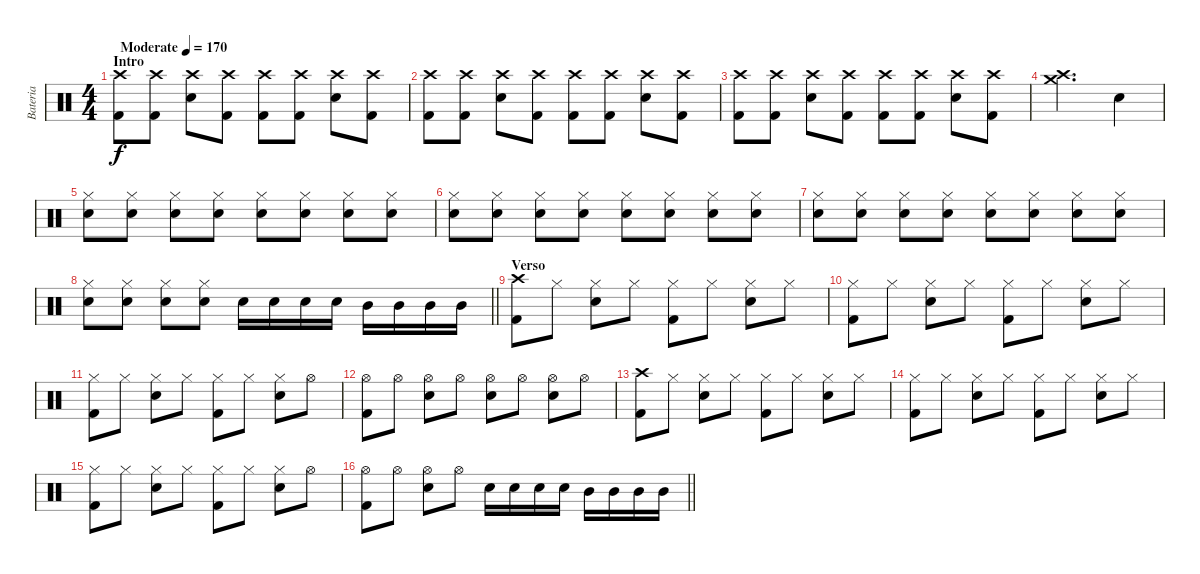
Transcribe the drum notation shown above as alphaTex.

\track ("Bateria" "Bateria") {instrument percussion}
\staff {score}
\articulation defaults
\ts (4 4)
\section ("" "Intro")
\tempo (170 "Moderate")
\clef neutral
\ks c
("Crash high (hit)" "Kick (hit) 2").8{dy f} ("Crash high (hit)" "Kick (hit) 2").8 ("Crash high (hit)" "Snare (hit) 2").8 ("Crash high (hit)" "Kick (hit) 2").8 ("Crash high (hit)" "Kick (hit) 2").8 ("Crash high (hit)" "Kick (hit) 2").8 ("Crash high (hit)" "Snare (hit) 2").8 ("Crash high (hit)" "Kick (hit) 2").8 |
("Crash high (hit)" "Kick (hit) 2").8 ("Crash high (hit)" "Kick (hit) 2").8 ("Crash high (hit)" "Snare (hit) 2").8 ("Crash high (hit)" "Kick (hit) 2").8 ("Crash high (hit)" "Kick (hit) 2").8 ("Crash high (hit)" "Kick (hit) 2").8 ("Crash high (hit)" "Snare (hit) 2").8 ("Crash high (hit)" "Kick (hit) 2").8 |
("Crash high (hit)" "Kick (hit) 2").8 ("Crash high (hit)" "Kick (hit) 2").8 ("Crash high (hit)" "Snare (hit) 2").8 ("Crash high (hit)" "Kick (hit) 2").8 ("Crash high (hit)" "Kick (hit) 2").8 ("Crash high (hit)" "Kick (hit) 2").8 ("Crash high (hit)" "Snare (hit) 2").8 ("Crash high (hit)" "Kick (hit) 2").8 |
("Crash high (hit)" "Crash medium (hit)").2{d} "Snare (hit) 2".4 |
("Hi-Hat (closed)" "Snare (hit) 2").8 ("Hi-Hat (closed)" "Snare (hit) 2").8 ("Hi-Hat (closed)" "Snare (hit) 2").8 ("Hi-Hat (closed)" "Snare (hit) 2").8 ("Hi-Hat (closed)" "Snare (hit) 2").8 ("Hi-Hat (closed)" "Snare (hit) 2").8 ("Hi-Hat (closed)" "Snare (hit) 2").8 ("Hi-Hat (closed)" "Snare (hit) 2").8 |
("Hi-Hat (closed)" "Snare (hit) 2").8 ("Hi-Hat (closed)" "Snare (hit) 2").8 ("Hi-Hat (closed)" "Snare (hit) 2").8 ("Hi-Hat (closed)" "Snare (hit) 2").8 ("Hi-Hat (closed)" "Snare (hit) 2").8 ("Hi-Hat (closed)" "Snare (hit) 2").8 ("Hi-Hat (closed)" "Snare (hit) 2").8 ("Hi-Hat (closed)" "Snare (hit) 2").8 |
("Hi-Hat (closed)" "Snare (hit) 2").8 ("Hi-Hat (closed)" "Snare (hit) 2").8 ("Hi-Hat (closed)" "Snare (hit) 2").8 ("Hi-Hat (closed)" "Snare (hit) 2").8 ("Hi-Hat (closed)" "Snare (hit) 2").8 ("Hi-Hat (closed)" "Snare (hit) 2").8 ("Hi-Hat (closed)" "Snare (hit) 2").8 ("Hi-Hat (closed)" "Snare (hit) 2").8 |
\barLineRight lightlight
("Hi-Hat (closed)" "Snare (hit) 2").8 ("Hi-Hat (closed)" "Snare (hit) 2").8 ("Hi-Hat (closed)" "Snare (hit) 2").8 ("Hi-Hat (closed)" "Snare (hit) 2").8 "Snare (hit) 2".16 "Snare (hit) 2".16 "Snare (hit) 2".16 "Snare (hit) 2".16 "Mid Tom (hit)".16 "Mid Tom (hit)".16 "Mid Tom (hit)".16 "Mid Tom (hit)".16 |
\section ("" "Verso")
("Crash high (hit)" "Kick (hit) 2").8 "Hi-Hat (closed)".8 ("Hi-Hat (closed)" "Snare (hit) 2").8 "Hi-Hat (closed)".8 ("Hi-Hat (closed)" "Kick (hit) 2").8 "Hi-Hat (closed)".8 ("Hi-Hat (closed)" "Snare (hit) 2").8 "Hi-Hat (closed)".8 |
("Hi-Hat (closed)" "Kick (hit) 2").8 "Hi-Hat (closed)".8 ("Hi-Hat (closed)" "Snare (hit) 2").8 "Hi-Hat (closed)".8 ("Hi-Hat (closed)" "Kick (hit) 2").8 "Hi-Hat (closed)".8 ("Hi-Hat (closed)" "Snare (hit) 2").8 "Hi-Hat (closed)".8 |
("Hi-Hat (closed)" "Kick (hit) 2").8 "Hi-Hat (closed)".8 ("Hi-Hat (closed)" "Snare (hit) 2").8 "Hi-Hat (closed)".8 ("Hi-Hat (closed)" "Kick (hit) 2").8 "Hi-Hat (closed)".8 ("Hi-Hat (closed)" "Snare (hit) 2").8 "Hi-Hat (open)".8 |
("Hi-Hat (open)" "Kick (hit) 2").8 "Hi-Hat (open)".8 ("Hi-Hat (open)" "Snare (hit) 2").8 "Hi-Hat (open)".8 ("Hi-Hat (open)" "Snare (hit) 2").8 "Hi-Hat (open)".8 ("Hi-Hat (open)" "Snare (hit) 2").8 "Hi-Hat (open)".8 |
("Crash high (hit)" "Kick (hit) 2").8 "Hi-Hat (closed)".8 ("Hi-Hat (closed)" "Snare (hit) 2").8 "Hi-Hat (closed)".8 ("Hi-Hat (closed)" "Kick (hit) 2").8 "Hi-Hat (closed)".8 ("Hi-Hat (closed)" "Snare (hit) 2").8 "Hi-Hat (closed)".8 |
("Hi-Hat (closed)" "Kick (hit) 2").8 "Hi-Hat (closed)".8 ("Hi-Hat (closed)" "Snare (hit) 2").8 "Hi-Hat (closed)".8 ("Hi-Hat (closed)" "Kick (hit) 2").8 "Hi-Hat (closed)".8 ("Hi-Hat (closed)" "Snare (hit) 2").8 "Hi-Hat (closed)".8 |
("Hi-Hat (closed)" "Kick (hit) 2").8 "Hi-Hat (closed)".8 ("Hi-Hat (closed)" "Snare (hit) 2").8 "Hi-Hat (closed)".8 ("Hi-Hat (closed)" "Kick (hit) 2").8 "Hi-Hat (closed)".8 ("Hi-Hat (closed)" "Snare (hit) 2").8 "Hi-Hat (open)".8 |
\barLineRight lightlight
("Hi-Hat (open)" "Kick (hit) 2").8 "Hi-Hat (open)".8 ("Hi-Hat (open)" "Snare (hit) 2").8 "Hi-Hat (open)".8 "Snare (hit) 2".16 "Snare (hit) 2".16 "Snare (hit) 2".16 "Snare (hit) 2".16 "Mid Tom (hit)".16 "Mid Tom (hit)".16 "Mid Tom (hit)".16 "Mid Tom (hit)".16
